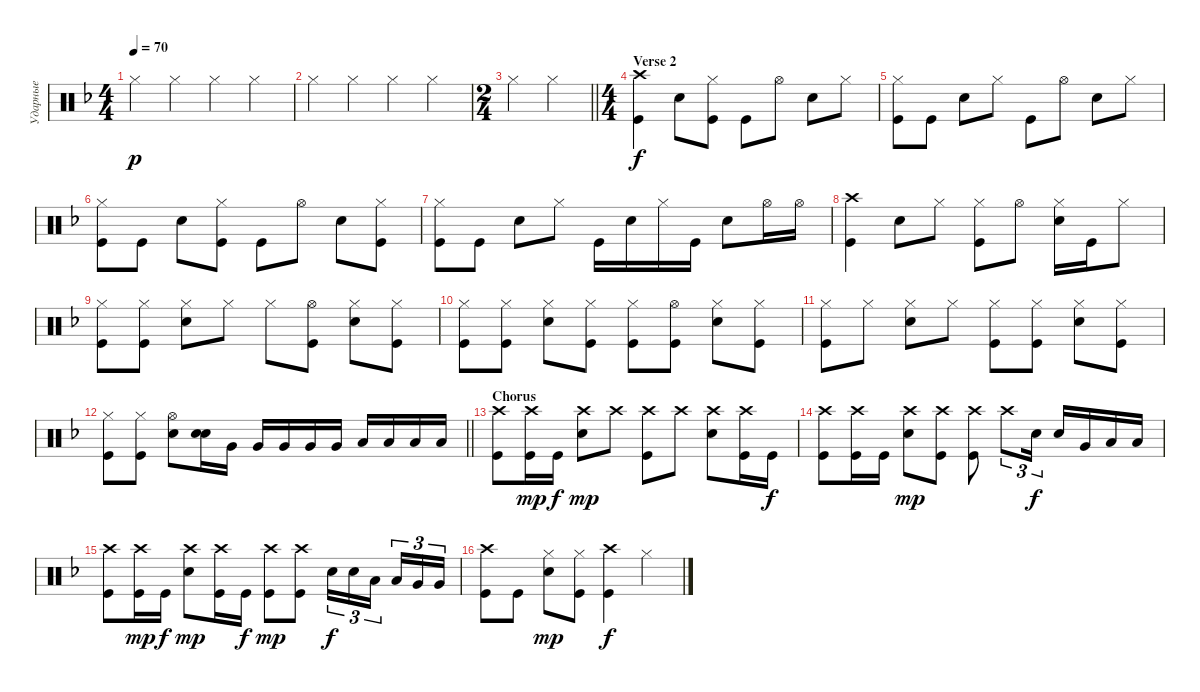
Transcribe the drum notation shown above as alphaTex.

\track ("Ударные" "Ударные") {instrument percussion}
\staff {score}
\articulation defaults
\ts (4 4)
\tempo 70
\clef neutral
\ks dminor "Hi-Hat (closed)".4{dy p} "Hi-Hat (closed)".4 "Hi-Hat (closed)".4 "Hi-Hat (closed)".4
|
"Hi-Hat (closed)".4 "Hi-Hat (closed)".4 "Hi-Hat (closed)".4 "Hi-Hat (closed)".4 |
\ts (2 4)
\barLineRight lightlight "Hi-Hat (closed)".4 "Hi-Hat (closed)".4
|
\ts (4 4)
\section ("" "Verse 2")
("Kick (hit)" "Crash high (hit)").4{dy f} "Snare (hit) 2".8 ("Kick (hit)" "Hi-Hat (closed)").8 "Kick (hit)".8 "Hi-Hat (open)".8 "Snare (hit) 2".8 "Hi-Hat (closed)".8 |
("Kick (hit)" "Hi-Hat (closed)").8 "Kick (hit)".8 "Snare (hit) 2".8 "Hi-Hat (closed)".8 "Kick (hit)".8 "Hi-Hat (open)".8 "Snare (hit) 2".8 "Hi-Hat (closed)".8 |
("Kick (hit)" "Hi-Hat (closed)").8 "Kick (hit)".8 "Snare (hit) 2".8 ("Hi-Hat (closed)" "Kick (hit)").8 "Kick (hit)".8 "Hi-Hat (open)".8 "Snare (hit) 2".8 ("Hi-Hat (closed)" "Kick (hit)").8 |
("Kick (hit)" "Hi-Hat (closed)").8 "Kick (hit)".8 "Snare (hit) 2".8 "Hi-Hat (closed)".8 "Kick (hit)".16 "Snare (hit) 2".16 "Hi-Hat (closed)".16 "Kick (hit)".16 "Snare (hit) 2".8 "Hi-Hat (open)".16 "Hi-Hat (open)".16 |
("Kick (hit)" "Crash high (hit)").4 "Snare (hit) 2".8 "Hi-Hat (closed)".8 ("Kick (hit)" "Hi-Hat (closed)").8 "Hi-Hat (open)".8 ("Snare (hit) 2" "Hi-Hat (closed)").16 "Kick (hit)".16 "Hi-Hat (closed)".8 |
("Kick (hit)" "Hi-Hat (closed)").8 ("Kick (hit)" "Hi-Hat (closed)").8 ("Snare (hit) 2" "Hi-Hat (closed)").8 "Hi-Hat (closed)".8 "Hi-Hat (closed)".8 ("Hi-Hat (open)" "Kick (hit)").8 ("Snare (hit) 2" "Hi-Hat (closed)").8 ("Hi-Hat (closed)" "Kick (hit)").8 |
("Kick (hit)" "Hi-Hat (closed)").8 ("Kick (hit)" "Hi-Hat (closed)").8 ("Snare (hit) 2" "Hi-Hat (closed)").8 ("Hi-Hat (closed)" "Kick (hit)").8 ("Kick (hit)" "Hi-Hat (closed)").8 ("Hi-Hat (open)" "Kick (hit)").8 ("Snare (hit) 2" "Hi-Hat (closed)").8 ("Hi-Hat (closed)" "Kick (hit)").8 |
("Kick (hit)" "Hi-Hat (closed)").8 "Hi-Hat (closed)".8 ("Snare (hit) 2" "Hi-Hat (closed)").8 "Hi-Hat (closed)".8 ("Kick (hit)" "Hi-Hat (closed)").8 ("Kick (hit)" "Hi-Hat (closed)").8 ("Snare (hit) 2" "Hi-Hat (closed)").8 ("Hi-Hat (closed)" "Kick (hit)").8 |
\barLineRight lightlight
("Kick (hit)" "Hi-Hat (closed)").8 ("Kick (hit)" "Hi-Hat (closed)").8 ("Hi-Hat (open)" "Snare (hit) 2").8 ("Snare (hit) 2" "Snare (hit) 2").16{bd 120} "Very Low Tom (hit)".16 "Very Low Tom (hit)".16 "Very Low Tom (hit)".16 "Very Low Tom (hit)".16 "Very Low Tom (hit)".16 "Low Floor Tom (hit)".16 "Low Floor Tom (hit)".16 "Low Floor Tom (hit)".16 "Low Floor Tom (hit)".16 |
\section ("" "Chorus")
("Kick (hit)" "Crash high (hit)").8 ("Kick (hit)" "Crash high (hit)").16{dy mp} "Kick (hit)".16{dy f} ("Snare (hit) 2" "Crash high (hit)").8{dy mp} "Crash high (hit)".8 ("Kick (hit)" "Crash high (hit)").8 "Crash high (hit)".8 ("Snare (hit) 2" "Crash high (hit)").8 ("Kick (hit)" "Crash high (hit)").16 "Kick (hit)".16{dy f} |
("Kick (hit)" "Crash high (hit)").8 ("Kick (hit)" "Crash high (hit)").16 "Kick (hit)".16 ("Snare (hit) 2" "Crash high (hit)").8{dy mp} ("Kick (hit)" "Crash high (hit)").8 ("Kick (hit)" "Crash high (hit)").8 "Crash high (hit)".8{tu (3 2)} "Snare (hit) 2".16{tu (3 2) dy f} "Snare (hit) 2".16 "Very Low Tom (hit)".16 "Low Floor Tom (hit)".16 "Low Floor Tom (hit)".16 |
("Kick (hit)" "Crash high (hit)").8 ("Kick (hit)" "Crash high (hit)").16{dy mp} "Kick (hit)".16{dy f} ("Snare (hit) 2" "Crash high (hit)").8{dy mp} ("Kick (hit)" "Crash high (hit)").16 "Kick (hit)".16{dy f} ("Kick (hit)" "Crash high (hit)").8{dy mp} ("Kick (hit)" "Crash high (hit)").8 "Snare (hit) 2".16{tu (3 2) dy f} "Snare (hit) 2".16{tu (3 2)} "Low Floor Tom (hit)".16{tu (3 2) beam splitsecondary} "Low Floor Tom (hit)".16{tu (3 2)} "Very Low Tom (hit)".16{tu (3 2)} "Very Low Tom (hit)".16{tu (3 2)} |
("Kick (hit)" "Crash high (hit)").8 "Kick (hit)".8 ("Snare (hit) 2" "Hi-Hat (closed)").8{dy mp} ("Kick (hit)" "Hi-Hat (closed)").8 ("Kick (hit)" "Crash high (hit)").4{dy f} "Hi-Hat (closed)".4
